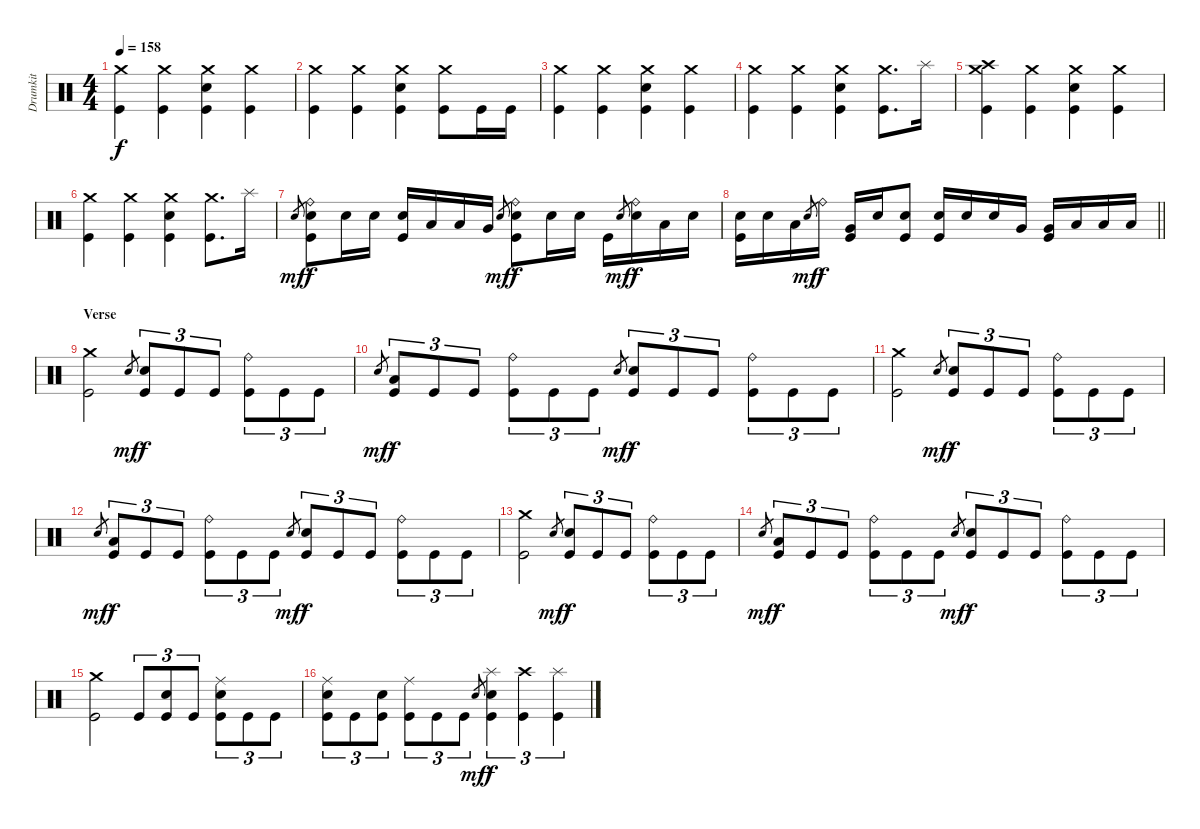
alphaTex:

\track ("Drumkit" "Drumkit") {instrument percussion}
\staff {score}
\articulation defaults
\ts (4 4)
\section ("" "")
\tempo 158
\clef neutral
\ks c
("Crash medium (hit)" "Kick (hit)").4{dy f} ("Crash medium (hit)" "Kick (hit)").4 ("Crash medium (hit)" "Snare (hit) 2" "Kick (hit)").4 ("Crash medium (hit)" "Kick (hit)").4 |
("Crash medium (hit)" "Kick (hit)").4 ("Crash medium (hit)" "Kick (hit)").4 ("Crash medium (hit)" "Snare (hit) 2" "Kick (hit)").4 ("Crash medium (hit)" "Kick (hit)").8 "Kick (hit)".16 "Kick (hit)".16 |
("Crash medium (hit)" "Kick (hit)").4 ("Crash medium (hit)" "Kick (hit)").4 ("Crash medium (hit)" "Snare (hit) 2" "Kick (hit)").4 ("Crash medium (hit)" "Kick (hit)").4 |
("Crash medium (hit)" "Kick (hit)").4 ("Crash medium (hit)" "Kick (hit)").4 ("Crash medium (hit)" "Snare (hit) 2" "Kick (hit)").4 ("Crash medium (hit)" "Kick (hit)").8{d} "Splash (hit)".16 |
("Crash medium (hit)" "Crash high (hit)" "Kick (hit)").4 ("Crash medium (hit)" "Kick (hit)").4 ("Crash medium (hit)" "Snare (hit) 2" "Kick (hit)").4 ("Crash medium (hit)" "Kick (hit)").4 |
("Crash medium (hit)" "Kick (hit)").4 ("Crash medium (hit)" "Kick (hit)").4 ("Crash medium (hit)" "Snare (hit) 2" "Kick (hit)").4 ("Crash medium (hit)" "Kick (hit)").8{d} "Splash (hit)".16 |
"Snare (hit)".8{gr dy mf} ("Ride (bell)" "Snare (hit) 2" "Kick (hit)").8{dy f} "Snare (hit) 2".16 "Snare (hit) 2".16 ("Snare (hit) 2" "Kick (hit)").16 "Low Tom (hit)".16 "Low Tom (hit)".16 "Very Low Tom (hit)".16 "Snare (hit)".8{gr dy mf} ("Ride (bell)" "Snare (hit) 2" "Kick (hit)").8{dy f} "Snare (hit) 2".16 "Snare (hit) 2".16 "Kick (hit)".16 "Snare (hit)".8{gr dy mf} ("Ride (bell)" "Snare (hit) 2").16{dy f} "Low Tom (hit)".16 "Snare (hit) 2".16 |
\barLineRight lightlight
("Snare (hit) 2" "Kick (hit)").16 "Snare (hit) 2".16 "Low Floor Tom (hit)".16 "Snare (hit)".8{gr dy mf} "Ride (bell)".16{dy f} ("Very Low Tom (hit)" "Kick (hit)").16 "Snare (hit) 2".16 ("Snare (hit) 2" "Kick (hit)").8 ("Snare (hit) 2" "Kick (hit)").16 "Snare (hit) 2".16 "Snare (hit) 2".16 "Very Low Tom (hit)".16 ("Very Low Tom (hit)" "Kick (hit)").16 "Low Floor Tom (hit)".16 "Low Floor Tom (hit)".16 "Low Floor Tom (hit)".16 |
\section ("" "Verse")
("Crash medium (hit)" "Kick (hit)").2 "Snare (hit)".8{gr dy mf} ("Snare (hit) 2" "Kick (hit)").8{tu (3 2) dy f} "Kick (hit)".8{tu (3 2)} "Kick (hit)".8{tu (3 2)} ("Ride (bell)" "Kick (hit)").8{tu (3 2)} "Kick (hit)".8{tu (3 2)} "Kick (hit)".8{tu (3 2)} |
"Snare (hit)".8{gr dy mf} ("Low Tom (hit)" "Kick (hit)").8{tu (3 2) dy f} "Kick (hit)".8{tu (3 2)} "Kick (hit)".8{tu (3 2)} ("Ride (bell)" "Kick (hit)").8{tu (3 2)} "Kick (hit)".8{tu (3 2)} "Kick (hit)".8{tu (3 2)} "Snare (hit)".8{gr dy mf} ("Snare (hit) 2" "Kick (hit)").8{tu (3 2) dy f} "Kick (hit)".8{tu (3 2)} "Kick (hit)".8{tu (3 2)} ("Ride (bell)" "Kick (hit)").8{tu (3 2)} "Kick (hit)".8{tu (3 2)} "Kick (hit)".8{tu (3 2)} |
("Crash medium (hit)" "Kick (hit)").2 "Snare (hit)".8{gr dy mf} ("Snare (hit) 2" "Kick (hit)").8{tu (3 2) dy f} "Kick (hit)".8{tu (3 2)} "Kick (hit)".8{tu (3 2)} ("Ride (bell)" "Kick (hit)").8{tu (3 2)} "Kick (hit)".8{tu (3 2)} "Kick (hit)".8{tu (3 2)} |
"Snare (hit)".8{gr dy mf} ("Low Tom (hit)" "Kick (hit)").8{tu (3 2) dy f} "Kick (hit)".8{tu (3 2)} "Kick (hit)".8{tu (3 2)} ("Ride (bell)" "Kick (hit)").8{tu (3 2)} "Kick (hit)".8{tu (3 2)} "Kick (hit)".8{tu (3 2)} "Snare (hit)".8{gr dy mf} ("Snare (hit) 2" "Kick (hit)").8{tu (3 2) dy f} "Kick (hit)".8{tu (3 2)} "Kick (hit)".8{tu (3 2)} ("Ride (bell)" "Kick (hit)").8{tu (3 2)} "Kick (hit)".8{tu (3 2)} "Kick (hit)".8{tu (3 2)} |
("Crash medium (hit)" "Kick (hit)").2 "Snare (hit)".8{gr dy mf} ("Snare (hit) 2" "Kick (hit)").8{tu (3 2) dy f} "Kick (hit)".8{tu (3 2)} "Kick (hit)".8{tu (3 2)} ("Ride (bell)" "Kick (hit)").8{tu (3 2)} "Kick (hit)".8{tu (3 2)} "Kick (hit)".8{tu (3 2)} |
"Snare (hit)".8{gr dy mf} ("Low Tom (hit)" "Kick (hit)").8{tu (3 2) dy f} "Kick (hit)".8{tu (3 2)} "Kick (hit)".8{tu (3 2)} ("Ride (bell)" "Kick (hit)").8{tu (3 2)} "Kick (hit)".8{tu (3 2)} "Kick (hit)".8{tu (3 2)} "Snare (hit)".8{gr dy mf} ("Snare (hit) 2" "Kick (hit)").8{tu (3 2) dy f} "Kick (hit)".8{tu (3 2)} "Kick (hit)".8{tu (3 2)} ("Ride (bell)" "Kick (hit)").8{tu (3 2)} "Kick (hit)".8{tu (3 2)} "Kick (hit)".8{tu (3 2)} |
("Crash medium (hit)" "Kick (hit)").2 "Kick (hit)".8{tu (3 2)} ("Snare (hit) 2" "Kick (hit)").8{tu (3 2)} "Kick (hit)".8{tu (3 2)} ("Ride (middle)" "Snare (hit) 2" "Kick (hit)").8{tu (3 2)} "Kick (hit)".8{tu (3 2)} "Kick (hit)".8{tu (3 2)} |
("Ride (middle)" "Snare (hit) 2" "Kick (hit)").8{tu (3 2)} "Kick (hit)".8{tu (3 2)} ("Snare (hit) 2" "Kick (hit)").8{tu (3 2)} ("Ride (middle)" "Kick (hit)").8{tu (3 2)} "Kick (hit)".8{tu (3 2)} "Kick (hit)".8{tu (3 2)} "Snare (hit)".8{gr dy mf} ("Splash (hit)" "Snare (hit) 2" "Kick (hit)").4{tu (3 2) dy f} ("Crash high (hit)" "Kick (hit)").4{tu (3 2)} ("Splash (hit)" "Kick (hit)").4{tu (3 2)}
